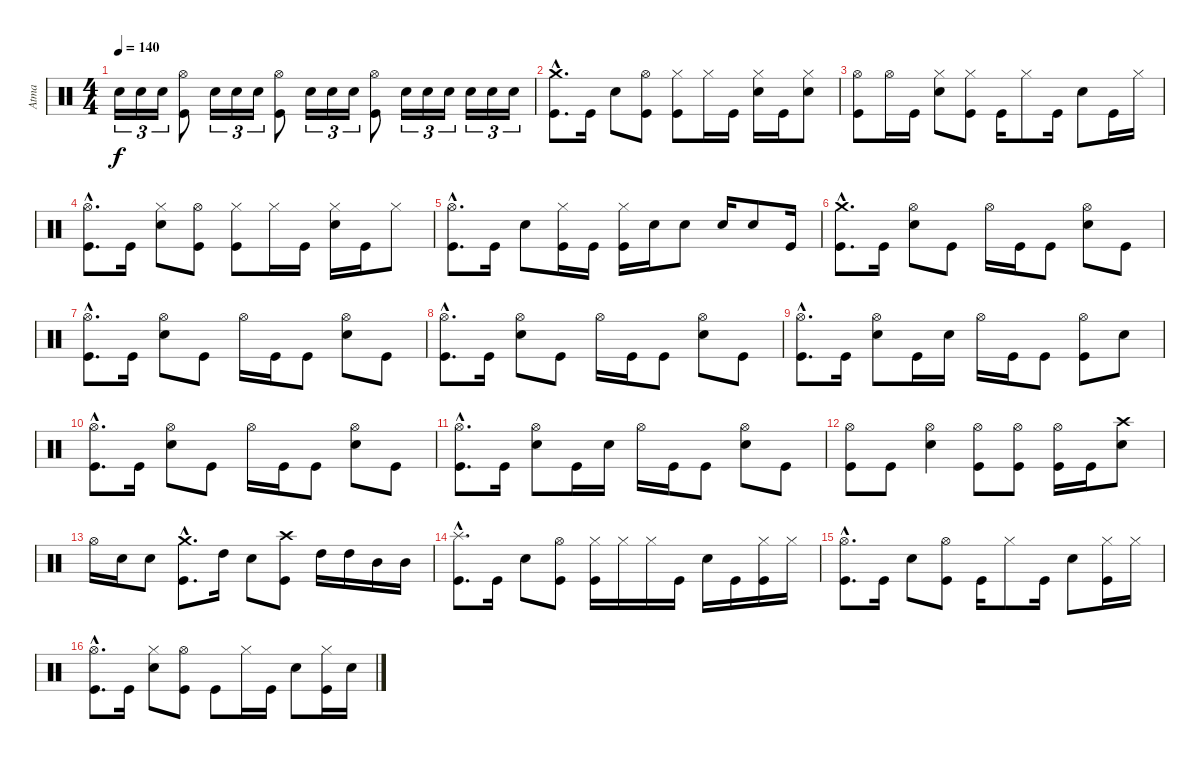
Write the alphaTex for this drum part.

\track ("Atma" "Atma") {instrument percussion}
\staff {score}
\articulation defaults
\ts (4 4)
\tempo 140
\clef neutral
\ks c "Snare (hit) 2".16{tu (3 2) dy f} "Snare (hit) 2".16{tu (3 2)} "Snare (hit) 2".16{tu (3 2)}
("Kick (hit)" "Hi-Hat (open)").8 "Snare (hit) 2".16{tu (3 2)} "Snare (hit) 2".16{tu (3 2)} "Snare (hit) 2".16{tu (3 2)} ("Kick (hit)" "Hi-Hat (open)").8 "Snare (hit) 2".16{tu (3 2)} "Snare (hit) 2".16{tu (3 2)} "Snare (hit) 2".16{tu (3 2)} ("Kick (hit)" "Hi-Hat (open)").8 "Snare (hit) 2".16{tu (3 2)} "Snare (hit) 2".16{tu (3 2)} "Snare (hit) 2".16{tu (3 2)} "Snare (hit) 2".16{tu (3 2)} "Snare (hit) 2".16{tu (3 2)} "Snare (hit) 2".16{tu (3 2)} |
("Kick (hit)"{hac} "Crash medium (hit)"{hac}).8{d} "Kick (hit)".16 "Snare (hit) 2".8 ("Kick (hit)" "Hi-Hat (open)").8 ("Kick (hit)" "Hi-Hat (closed)").8 "Hi-Hat (closed)".16 "Kick (hit)".16 ("Snare (hit) 2" "Hi-Hat (closed)").16 "Kick (hit)".16 ("Snare (hit) 2" "Hi-Hat (closed)").8 |
("Kick (hit)" "Hi-Hat (open)").8 "Hi-Hat (open)".16 "Kick (hit)".16 ("Snare (hit) 2" "Hi-Hat (closed)").8 ("Kick (hit)" "Hi-Hat (closed)").8 "Kick (hit)".16 "Hi-Hat (closed)".8 "Kick (hit)".16 "Snare (hit) 2".8 "Kick (hit)".16 "Hi-Hat (closed)".16 |
("Kick (hit)"{hac} "Hi-Hat (open)"{hac}).8{d} "Kick (hit)".16 ("Snare (hit) 2" "Hi-Hat (closed)").8 ("Kick (hit)" "Hi-Hat (open)").8 ("Kick (hit)" "Hi-Hat (closed)").8 "Hi-Hat (closed)".16 "Kick (hit)".16 ("Snare (hit) 2" "Hi-Hat (closed)").16 "Kick (hit)".16 "Hi-Hat (closed)".8 |
("Kick (hit)"{hac} "Hi-Hat (open)"{hac}).8{d} "Kick (hit)".16 "Snare (hit) 2".8 ("Kick (hit)" "Hi-Hat (closed)").16 "Kick (hit)".16 ("Kick (hit)" "Hi-Hat (closed)").16 "Snare (hit) 2".16 "Snare (hit) 2".8 "Snare (hit) 2".16 "Snare (hit) 2".8 "Kick (hit)".16 |
("Kick (hit)"{hac} "Crash medium (hit)"{hac}).8{d} "Kick (hit)".16 ("Snare (hit) 2" "Hi-Hat (open)").8 "Kick (hit)".8 "Hi-Hat (open)".16 "Kick (hit)".16 "Kick (hit)".8 ("Snare (hit) 2" "Hi-Hat (open)").8 "Kick (hit)".8 |
("Kick (hit)"{hac} "Hi-Hat (open)"{hac}).8{d} "Kick (hit)".16 ("Snare (hit) 2" "Hi-Hat (open)").8 "Kick (hit)".8 "Hi-Hat (open)".16 "Kick (hit)".16 "Kick (hit)".8 ("Snare (hit) 2" "Hi-Hat (open)").8 "Kick (hit)".8 |
("Kick (hit)"{hac} "Hi-Hat (open)"{hac}).8{d} "Kick (hit)".16 ("Snare (hit) 2" "Hi-Hat (open)").8 "Kick (hit)".8 "Hi-Hat (open)".16 "Kick (hit)".16 "Kick (hit)".8 ("Snare (hit) 2" "Hi-Hat (open)").8 "Kick (hit)".8 |
("Kick (hit)"{hac} "Hi-Hat (open)"{hac}).8{d} "Kick (hit)".16 ("Snare (hit) 2" "Hi-Hat (open)").8 "Kick (hit)".16 "Snare (hit) 2".16 "Hi-Hat (open)".16 "Kick (hit)".16 "Kick (hit)".8 ("Kick (hit)" "Hi-Hat (open)").8 "Snare (hit) 2".8 |
("Kick (hit)"{hac} "Hi-Hat (open)"{hac}).8{d} "Kick (hit)".16 ("Snare (hit) 2" "Hi-Hat (open)").8 "Kick (hit)".8 "Hi-Hat (open)".16 "Kick (hit)".16 "Kick (hit)".8 ("Snare (hit) 2" "Hi-Hat (open)").8 "Kick (hit)".8 |
("Kick (hit)"{hac} "Hi-Hat (open)"{hac}).8{d} "Kick (hit)".16 ("Snare (hit) 2" "Hi-Hat (open)").8 "Kick (hit)".16 "Snare (hit) 2".16 "Hi-Hat (open)".16 "Kick (hit)".16 "Kick (hit)".8 ("Snare (hit) 2" "Hi-Hat (open)").8 "Kick (hit)".8 |
("Kick (hit)" "Hi-Hat (open)").8 "Kick (hit)".8 ("Snare (hit) 2" "Hi-Hat (open)").4 ("Kick (hit)" "Hi-Hat (open)").8 ("Kick (hit)" "Hi-Hat (open)").8 ("Kick (hit)" "Hi-Hat (open)").16 "Kick (hit)".16 ("Snare (hit) 2" "Crash high (hit)").8 |
"Hi-Hat (open)".16 "Snare (hit) 2".16 "Snare (hit) 2".8 ("Kick (hit)"{hac} "Crash medium (hit)"{hac}).8{d} "High Tom (hit)".16 "Snare (hit) 2".8 ("Kick (hit)" "Crash high (hit)").8 "High Tom (hit)".16 "High Tom (hit)".16 "Mid Tom (hit)".16 "Mid Tom (hit)".16 |
("Kick (hit)"{hac} "Splash (hit)"{hac}).8{d} "Kick (hit)".16 "Snare (hit) 2".8 ("Kick (hit)" "Hi-Hat (open)").8 ("Kick (hit)" "Hi-Hat (closed)").16 "Hi-Hat (closed)".16 "Hi-Hat (closed)".16 "Kick (hit)".16 "Snare (hit) 2".16 "Kick (hit)".16 ("Kick (hit)" "Hi-Hat (closed)").16 "Hi-Hat (closed)".16 |
("Kick (hit)"{hac} "Hi-Hat (open)"{hac}).8{d} "Kick (hit)".16 "Snare (hit) 2".8 ("Kick (hit)" "Hi-Hat (open)").8 "Kick (hit)".16 "Hi-Hat (closed)".8 "Kick (hit)".16 "Snare (hit) 2".8 ("Kick (hit)" "Hi-Hat (closed)").16 "Hi-Hat (closed)".16 |
("Kick (hit)"{hac} "Hi-Hat (open)"{hac}).8{d} "Kick (hit)".16 ("Snare (hit) 2" "Hi-Hat (closed)").8 ("Kick (hit)" "Hi-Hat (open)").8 "Kick (hit)".8 "Hi-Hat (closed)".16 "Kick (hit)".16 "Snare (hit) 2".8 ("Kick (hit)" "Hi-Hat (closed)").16 "Snare (hit) 2".16
